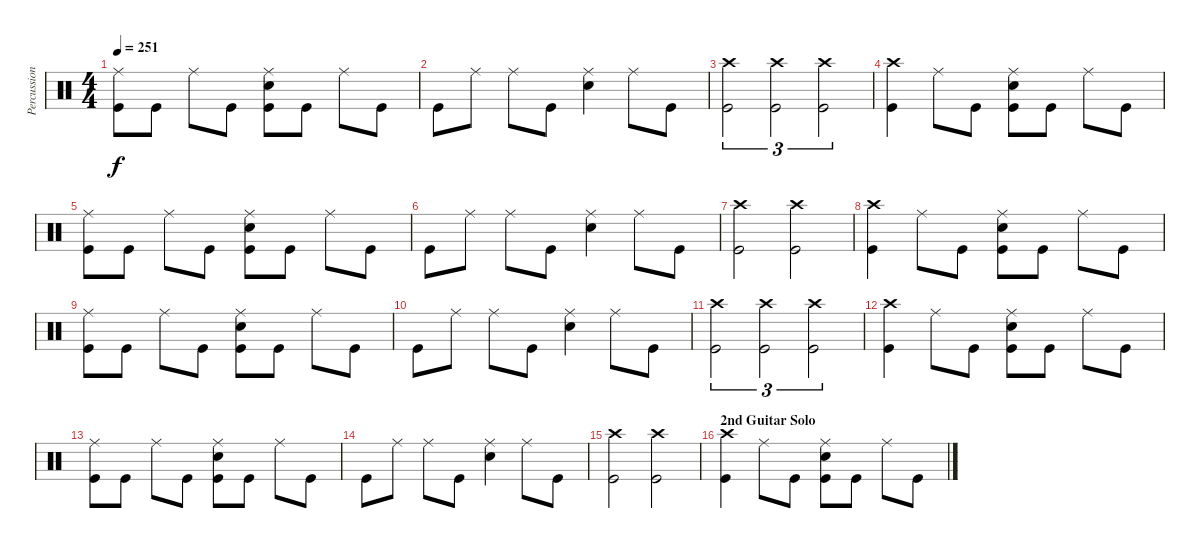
\track ("Percussion" "Percussion") {instrument percussion}
\staff {score}
\articulation defaults
\ts (4 4)
\tempo 251
\clef neutral
\ks c
("Ride (middle)" "Kick (hit)").8{dy f} "Kick (hit)".8 "Ride (middle)".8 "Kick (hit)".8 ("Ride (middle)" "Electric Snare (hit)" "Kick (hit)").8 "Kick (hit)".8 "Ride (middle)".8 "Kick (hit)".8 |
"Kick (hit)".8 "Ride (middle)".8 "Ride (middle)".8 "Kick (hit)".8 ("Ride (middle)" "Electric Snare (hit)").4 "Ride (middle)".8 "Kick (hit)".8 |
("Crash high (hit)" "Kick (hit)").2{tu (3 2)} ("Crash high (hit)" "Kick (hit)").2{tu (3 2)} ("Crash high (hit)" "Kick (hit)").2{tu (3 2)} |
("Crash high (hit)" "Kick (hit)").4 "Ride (middle)".8 "Kick (hit)".8 ("Ride (middle)" "Electric Snare (hit)" "Kick (hit)").8 "Kick (hit)".8 "Ride (middle)".8 "Kick (hit)".8 |
("Ride (middle)" "Kick (hit)").8 "Kick (hit)".8 "Ride (middle)".8 "Kick (hit)".8 ("Ride (middle)" "Electric Snare (hit)" "Kick (hit)").8 "Kick (hit)".8 "Ride (middle)".8 "Kick (hit)".8 |
"Kick (hit)".8 "Ride (middle)".8 "Ride (middle)".8 "Kick (hit)".8 ("Ride (middle)" "Electric Snare (hit)").4 "Ride (middle)".8 "Kick (hit)".8 |
("Crash high (hit)" "Kick (hit)").2 ("Crash high (hit)" "Kick (hit)").2 |
("Crash high (hit)" "Kick (hit)").4 "Ride (middle)".8 "Kick (hit)".8 ("Ride (middle)" "Electric Snare (hit)" "Kick (hit)").8 "Kick (hit)".8 "Ride (middle)".8 "Kick (hit)".8 |
("Ride (middle)" "Kick (hit)").8 "Kick (hit)".8 "Ride (middle)".8 "Kick (hit)".8 ("Ride (middle)" "Electric Snare (hit)" "Kick (hit)").8 "Kick (hit)".8 "Ride (middle)".8 "Kick (hit)".8 |
"Kick (hit)".8 "Ride (middle)".8 "Ride (middle)".8 "Kick (hit)".8 ("Ride (middle)" "Electric Snare (hit)").4 "Ride (middle)".8 "Kick (hit)".8 |
("Crash high (hit)" "Kick (hit)").2{tu (3 2)} ("Crash high (hit)" "Kick (hit)").2{tu (3 2)} ("Crash high (hit)" "Kick (hit)").2{tu (3 2)} |
("Crash high (hit)" "Kick (hit)").4 "Ride (middle)".8 "Kick (hit)".8 ("Ride (middle)" "Electric Snare (hit)" "Kick (hit)").8 "Kick (hit)".8 "Ride (middle)".8 "Kick (hit)".8 |
("Ride (middle)" "Kick (hit)").8 "Kick (hit)".8 "Ride (middle)".8 "Kick (hit)".8 ("Ride (middle)" "Electric Snare (hit)" "Kick (hit)").8 "Kick (hit)".8 "Ride (middle)".8 "Kick (hit)".8 |
"Kick (hit)".8 "Ride (middle)".8 "Ride (middle)".8 "Kick (hit)".8 ("Ride (middle)" "Electric Snare (hit)").4 "Ride (middle)".8 "Kick (hit)".8 |
("Crash high (hit)" "Kick (hit)").2 ("Crash high (hit)" "Kick (hit)").2 |
\section ("" "2nd Guitar Solo")
("Crash high (hit)" "Kick (hit)").4 "Ride (middle)".8 "Kick (hit)".8 ("Ride (middle)" "Electric Snare (hit)" "Kick (hit)").8 "Kick (hit)".8 "Ride (middle)".8 "Kick (hit)".8
